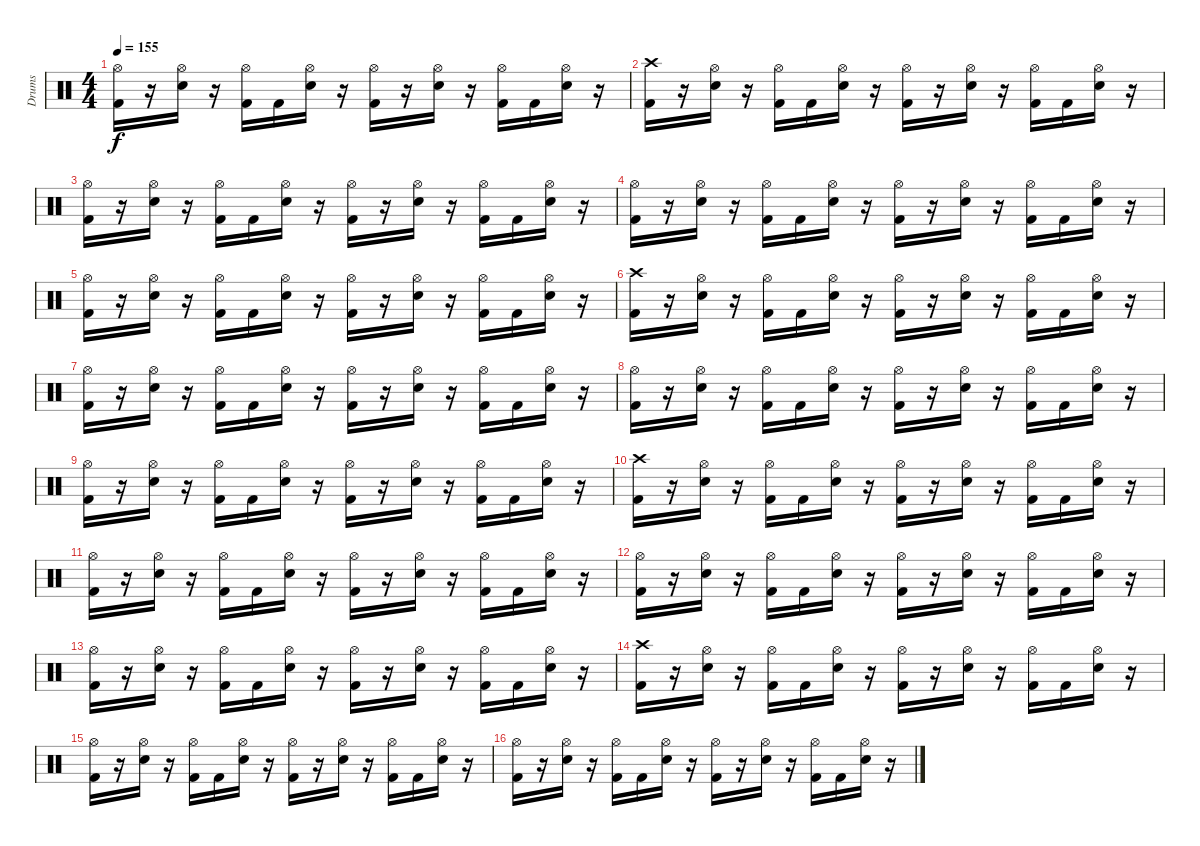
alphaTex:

\track ("Drums" "Drums") {instrument percussion}
\staff {score}
\articulation defaults
\ts (4 4)
\tempo 155
\clef neutral
\ks c
("Hi-Hat (open)" "Kick (hit) 2").16{dy f} r.16 ("Hi-Hat (open)" "Electric Snare (hit)").16 r.16 ("Hi-Hat (open)" "Kick (hit) 2").16 "Kick (hit) 2".16 ("Hi-Hat (open)" "Electric Snare (hit)").16 r.16 ("Hi-Hat (open)" "Kick (hit) 2").16 r.16 ("Hi-Hat (open)" "Electric Snare (hit)").16 r.16 ("Hi-Hat (open)" "Kick (hit) 2").16 "Kick (hit) 2".16 ("Hi-Hat (open)" "Electric Snare (hit)").16 r.16 |
("Crash high (hit)" "Kick (hit) 2").16 r.16 ("Hi-Hat (open)" "Electric Snare (hit)").16 r.16 ("Hi-Hat (open)" "Kick (hit) 2").16 "Kick (hit) 2".16 ("Hi-Hat (open)" "Electric Snare (hit)").16 r.16 ("Hi-Hat (open)" "Kick (hit) 2").16 r.16 ("Hi-Hat (open)" "Electric Snare (hit)").16 r.16 ("Hi-Hat (open)" "Kick (hit) 2").16 "Kick (hit) 2".16 ("Hi-Hat (open)" "Electric Snare (hit)").16 r.16 |
("Hi-Hat (open)" "Kick (hit) 2").16 r.16 ("Hi-Hat (open)" "Electric Snare (hit)").16 r.16 ("Hi-Hat (open)" "Kick (hit) 2").16 "Kick (hit) 2".16 ("Hi-Hat (open)" "Electric Snare (hit)").16 r.16 ("Hi-Hat (open)" "Kick (hit) 2").16 r.16 ("Hi-Hat (open)" "Electric Snare (hit)").16 r.16 ("Hi-Hat (open)" "Kick (hit) 2").16 "Kick (hit) 2".16 ("Hi-Hat (open)" "Electric Snare (hit)").16 r.16 |
("Hi-Hat (open)" "Kick (hit) 2").16 r.16 ("Hi-Hat (open)" "Electric Snare (hit)").16 r.16 ("Hi-Hat (open)" "Kick (hit) 2").16 "Kick (hit) 2".16 ("Hi-Hat (open)" "Electric Snare (hit)").16 r.16 ("Hi-Hat (open)" "Kick (hit) 2").16 r.16 ("Hi-Hat (open)" "Electric Snare (hit)").16 r.16 ("Hi-Hat (open)" "Kick (hit) 2").16 "Kick (hit) 2".16 ("Hi-Hat (open)" "Electric Snare (hit)").16 r.16 |
("Hi-Hat (open)" "Kick (hit) 2").16 r.16 ("Hi-Hat (open)" "Electric Snare (hit)").16 r.16 ("Hi-Hat (open)" "Kick (hit) 2").16 "Kick (hit) 2".16 ("Hi-Hat (open)" "Electric Snare (hit)").16 r.16 ("Hi-Hat (open)" "Kick (hit) 2").16 r.16 ("Hi-Hat (open)" "Electric Snare (hit)").16 r.16 ("Hi-Hat (open)" "Kick (hit) 2").16 "Kick (hit) 2".16 ("Hi-Hat (open)" "Electric Snare (hit)").16 r.16 |
("Crash high (hit)" "Kick (hit) 2").16 r.16 ("Hi-Hat (open)" "Electric Snare (hit)").16 r.16 ("Hi-Hat (open)" "Kick (hit) 2").16 "Kick (hit) 2".16 ("Hi-Hat (open)" "Electric Snare (hit)").16 r.16 ("Hi-Hat (open)" "Kick (hit) 2").16 r.16 ("Hi-Hat (open)" "Electric Snare (hit)").16 r.16 ("Hi-Hat (open)" "Kick (hit) 2").16 "Kick (hit) 2".16 ("Hi-Hat (open)" "Electric Snare (hit)").16 r.16 |
("Hi-Hat (open)" "Kick (hit) 2").16 r.16 ("Hi-Hat (open)" "Electric Snare (hit)").16 r.16 ("Hi-Hat (open)" "Kick (hit) 2").16 "Kick (hit) 2".16 ("Hi-Hat (open)" "Electric Snare (hit)").16 r.16 ("Hi-Hat (open)" "Kick (hit) 2").16 r.16 ("Hi-Hat (open)" "Electric Snare (hit)").16 r.16 ("Hi-Hat (open)" "Kick (hit) 2").16 "Kick (hit) 2".16 ("Hi-Hat (open)" "Electric Snare (hit)").16 r.16 |
("Hi-Hat (open)" "Kick (hit) 2").16 r.16 ("Hi-Hat (open)" "Electric Snare (hit)").16 r.16 ("Hi-Hat (open)" "Kick (hit) 2").16 "Kick (hit) 2".16 ("Hi-Hat (open)" "Electric Snare (hit)").16 r.16 ("Hi-Hat (open)" "Kick (hit) 2").16 r.16 ("Hi-Hat (open)" "Electric Snare (hit)").16 r.16 ("Hi-Hat (open)" "Kick (hit) 2").16 "Kick (hit) 2".16 ("Hi-Hat (open)" "Electric Snare (hit)").16 r.16 |
("Hi-Hat (open)" "Kick (hit) 2").16 r.16 ("Hi-Hat (open)" "Electric Snare (hit)").16 r.16 ("Hi-Hat (open)" "Kick (hit) 2").16 "Kick (hit) 2".16 ("Hi-Hat (open)" "Electric Snare (hit)").16 r.16 ("Hi-Hat (open)" "Kick (hit) 2").16 r.16 ("Hi-Hat (open)" "Electric Snare (hit)").16 r.16 ("Hi-Hat (open)" "Kick (hit) 2").16 "Kick (hit) 2".16 ("Hi-Hat (open)" "Electric Snare (hit)").16 r.16 |
("Crash high (hit)" "Kick (hit) 2").16 r.16 ("Hi-Hat (open)" "Electric Snare (hit)").16 r.16 ("Hi-Hat (open)" "Kick (hit) 2").16 "Kick (hit) 2".16 ("Hi-Hat (open)" "Electric Snare (hit)").16 r.16 ("Hi-Hat (open)" "Kick (hit) 2").16 r.16 ("Hi-Hat (open)" "Electric Snare (hit)").16 r.16 ("Hi-Hat (open)" "Kick (hit) 2").16 "Kick (hit) 2".16 ("Hi-Hat (open)" "Electric Snare (hit)").16 r.16 |
("Hi-Hat (open)" "Kick (hit) 2").16 r.16 ("Hi-Hat (open)" "Electric Snare (hit)").16 r.16 ("Hi-Hat (open)" "Kick (hit) 2").16 "Kick (hit) 2".16 ("Hi-Hat (open)" "Electric Snare (hit)").16 r.16 ("Hi-Hat (open)" "Kick (hit) 2").16 r.16 ("Hi-Hat (open)" "Electric Snare (hit)").16 r.16 ("Hi-Hat (open)" "Kick (hit) 2").16 "Kick (hit) 2".16 ("Hi-Hat (open)" "Electric Snare (hit)").16 r.16 |
("Hi-Hat (open)" "Kick (hit) 2").16 r.16 ("Hi-Hat (open)" "Electric Snare (hit)").16 r.16 ("Hi-Hat (open)" "Kick (hit) 2").16 "Kick (hit) 2".16 ("Hi-Hat (open)" "Electric Snare (hit)").16 r.16 ("Hi-Hat (open)" "Kick (hit) 2").16 r.16 ("Hi-Hat (open)" "Electric Snare (hit)").16 r.16 ("Hi-Hat (open)" "Kick (hit) 2").16 "Kick (hit) 2".16 ("Hi-Hat (open)" "Electric Snare (hit)").16 r.16 |
("Hi-Hat (open)" "Kick (hit) 2").16 r.16 ("Hi-Hat (open)" "Electric Snare (hit)").16 r.16 ("Hi-Hat (open)" "Kick (hit) 2").16 "Kick (hit) 2".16 ("Hi-Hat (open)" "Electric Snare (hit)").16 r.16 ("Hi-Hat (open)" "Kick (hit) 2").16 r.16 ("Hi-Hat (open)" "Electric Snare (hit)").16 r.16 ("Hi-Hat (open)" "Kick (hit) 2").16 "Kick (hit) 2".16 ("Hi-Hat (open)" "Electric Snare (hit)").16 r.16 |
("Crash high (hit)" "Kick (hit) 2").16 r.16 ("Hi-Hat (open)" "Electric Snare (hit)").16 r.16 ("Hi-Hat (open)" "Kick (hit) 2").16 "Kick (hit) 2".16 ("Hi-Hat (open)" "Electric Snare (hit)").16 r.16 ("Hi-Hat (open)" "Kick (hit) 2").16 r.16 ("Hi-Hat (open)" "Electric Snare (hit)").16 r.16 ("Hi-Hat (open)" "Kick (hit) 2").16 "Kick (hit) 2".16 ("Hi-Hat (open)" "Electric Snare (hit)").16 r.16 |
("Hi-Hat (open)" "Kick (hit) 2").16 r.16 ("Hi-Hat (open)" "Electric Snare (hit)").16 r.16 ("Hi-Hat (open)" "Kick (hit) 2").16 "Kick (hit) 2".16 ("Hi-Hat (open)" "Electric Snare (hit)").16 r.16 ("Hi-Hat (open)" "Kick (hit) 2").16 r.16 ("Hi-Hat (open)" "Electric Snare (hit)").16 r.16 ("Hi-Hat (open)" "Kick (hit) 2").16 "Kick (hit) 2".16 ("Hi-Hat (open)" "Electric Snare (hit)").16 r.16 |
("Hi-Hat (open)" "Kick (hit) 2").16 r.16 ("Hi-Hat (open)" "Electric Snare (hit)").16 r.16 ("Hi-Hat (open)" "Kick (hit) 2").16 "Kick (hit) 2".16 ("Hi-Hat (open)" "Electric Snare (hit)").16 r.16 ("Hi-Hat (open)" "Kick (hit) 2").16 r.16 ("Hi-Hat (open)" "Electric Snare (hit)").16 r.16 ("Hi-Hat (open)" "Kick (hit) 2").16 "Kick (hit) 2".16 ("Hi-Hat (open)" "Electric Snare (hit)").16 r.16
